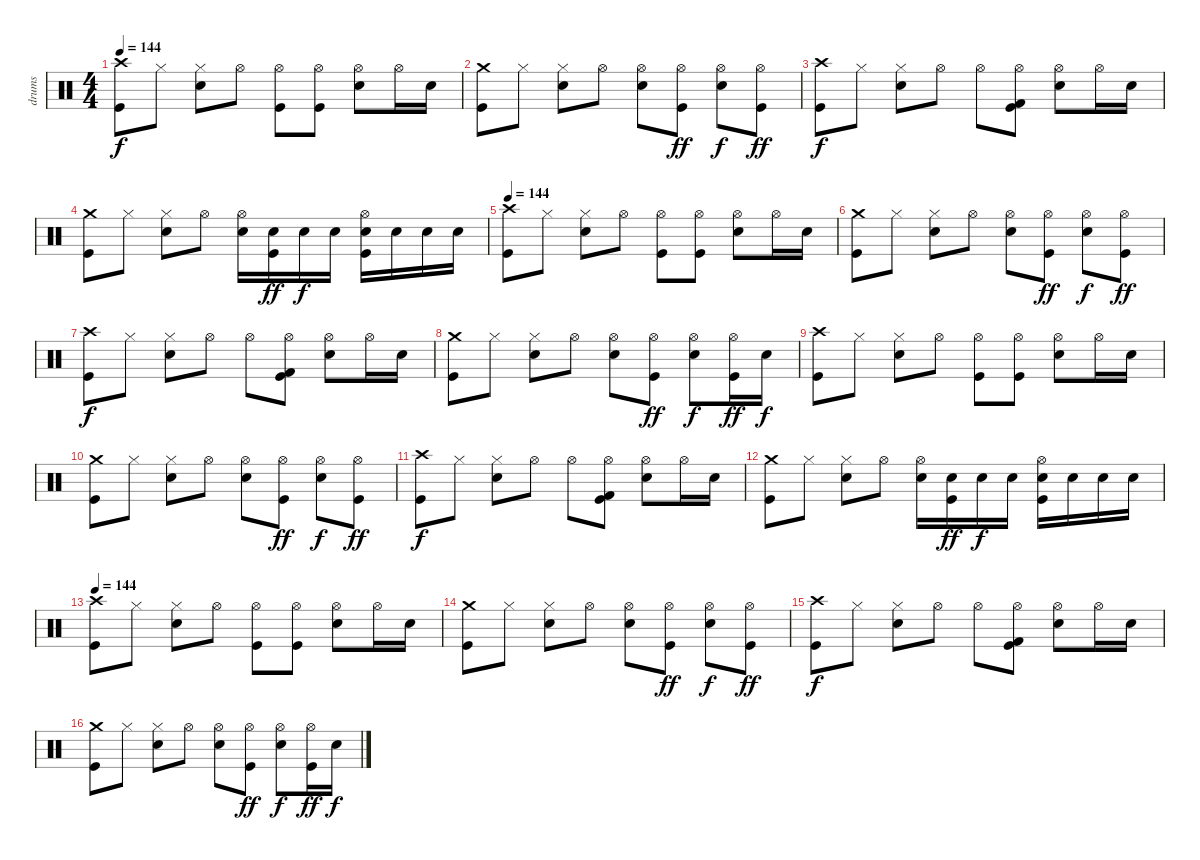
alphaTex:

\track ("drums" "drums") {instrument percussion}
\staff {score}
\articulation defaults
\ts (4 4)
\tempo 144
\clef neutral
\ks c
("Crash high (hit)" "Kick (hit)").8{dy f} "Hi-Hat (closed)".8 ("Hi-Hat (closed)" "Electric Snare (hit)").8 "Hi-Hat (open)".8 ("Hi-Hat (open)" "Kick (hit)").8 ("Hi-Hat (open)" "Kick (hit)").8 ("Hi-Hat (open)" "Electric Snare (hit)").8 "Hi-Hat (open)".16 "Electric Snare (hit)".16 |
("Crash medium (hit)" "Kick (hit)").8 "Hi-Hat (closed)".8 ("Hi-Hat (closed)" "Electric Snare (hit)").8 "Hi-Hat (open)".8 ("Hi-Hat (open)" "Electric Snare (hit)").8 ("Hi-Hat (open)" "Kick (hit)").8{dy ff} ("Hi-Hat (open)" "Electric Snare (hit)").8{dy f} ("Hi-Hat (open)" "Kick (hit)").8{dy ff} |
("Crash high (hit)" "Kick (hit)").8{dy f} "Hi-Hat (closed)".8 ("Hi-Hat (closed)" "Electric Snare (hit)").8 "Hi-Hat (open)".8 "Hi-Hat (open)".8 ("Hi-Hat (open)" "Kick (hit) 2" "Kick (hit)").8 ("Hi-Hat (open)" "Electric Snare (hit)").8 "Hi-Hat (open)".16 "Electric Snare (hit)".16 |
("Crash medium (hit)" "Kick (hit)").8 "Hi-Hat (closed)".8 ("Hi-Hat (closed)" "Electric Snare (hit)").8 "Hi-Hat (open)".8 ("Hi-Hat (open)" "Electric Snare (hit)").16 ("Electric Snare (hit)" "Kick (hit)").16{dy ff} "Electric Snare (hit)".16{dy f} "Electric Snare (hit)".16 ("Hi-Hat (open)" "Electric Snare (hit)" "Kick (hit)").16 "Electric Snare (hit)".16 "Electric Snare (hit)".16 "Electric Snare (hit)".16 |
\tempo 144
("Crash high (hit)" "Kick (hit)").8 "Hi-Hat (closed)".8 ("Hi-Hat (closed)" "Electric Snare (hit)").8 "Hi-Hat (open)".8 ("Hi-Hat (open)" "Kick (hit)").8 ("Hi-Hat (open)" "Kick (hit)").8 ("Hi-Hat (open)" "Electric Snare (hit)").8 "Hi-Hat (open)".16 "Electric Snare (hit)".16 |
("Crash medium (hit)" "Kick (hit)").8 "Hi-Hat (closed)".8 ("Hi-Hat (closed)" "Electric Snare (hit)").8 "Hi-Hat (open)".8 ("Hi-Hat (open)" "Electric Snare (hit)").8 ("Hi-Hat (open)" "Kick (hit)").8{dy ff} ("Hi-Hat (open)" "Electric Snare (hit)").8{dy f} ("Hi-Hat (open)" "Kick (hit)").8{dy ff} |
("Crash high (hit)" "Kick (hit)").8{dy f} "Hi-Hat (closed)".8 ("Hi-Hat (closed)" "Electric Snare (hit)").8 "Hi-Hat (open)".8 "Hi-Hat (open)".8 ("Hi-Hat (open)" "Kick (hit) 2" "Kick (hit)").8 ("Hi-Hat (open)" "Electric Snare (hit)").8 "Hi-Hat (open)".16 "Electric Snare (hit)".16 |
("Crash medium (hit)" "Kick (hit)").8 "Hi-Hat (closed)".8 ("Hi-Hat (closed)" "Electric Snare (hit)").8 "Hi-Hat (open)".8 ("Hi-Hat (open)" "Electric Snare (hit)").8 ("Hi-Hat (open)" "Kick (hit)").8{dy ff} ("Hi-Hat (open)" "Electric Snare (hit)").8{dy f} ("Hi-Hat (open)" "Kick (hit)").16{dy ff} "Electric Snare (hit)".16{dy f} |
("Crash high (hit)" "Kick (hit)").8 "Hi-Hat (closed)".8 ("Hi-Hat (closed)" "Electric Snare (hit)").8 "Hi-Hat (open)".8 ("Hi-Hat (open)" "Kick (hit)").8 ("Hi-Hat (open)" "Kick (hit)").8 ("Hi-Hat (open)" "Electric Snare (hit)").8 "Hi-Hat (open)".16 "Electric Snare (hit)".16 |
("Crash medium (hit)" "Kick (hit)").8 "Hi-Hat (closed)".8 ("Hi-Hat (closed)" "Electric Snare (hit)").8 "Hi-Hat (open)".8 ("Hi-Hat (open)" "Electric Snare (hit)").8 ("Hi-Hat (open)" "Kick (hit)").8{dy ff} ("Hi-Hat (open)" "Electric Snare (hit)").8{dy f} ("Hi-Hat (open)" "Kick (hit)").8{dy ff} |
("Crash high (hit)" "Kick (hit)").8{dy f} "Hi-Hat (closed)".8 ("Hi-Hat (closed)" "Electric Snare (hit)").8 "Hi-Hat (open)".8 "Hi-Hat (open)".8 ("Hi-Hat (open)" "Kick (hit) 2" "Kick (hit)").8 ("Hi-Hat (open)" "Electric Snare (hit)").8 "Hi-Hat (open)".16 "Electric Snare (hit)".16 |
("Crash medium (hit)" "Kick (hit)").8 "Hi-Hat (closed)".8 ("Hi-Hat (closed)" "Electric Snare (hit)").8 "Hi-Hat (open)".8 ("Hi-Hat (open)" "Electric Snare (hit)").16 ("Electric Snare (hit)" "Kick (hit)").16{dy ff} "Electric Snare (hit)".16{dy f} "Electric Snare (hit)".16 ("Hi-Hat (open)" "Electric Snare (hit)" "Kick (hit)").16 "Electric Snare (hit)".16 "Electric Snare (hit)".16 "Electric Snare (hit)".16 |
\tempo 144
("Crash high (hit)" "Kick (hit)").8 "Hi-Hat (closed)".8 ("Hi-Hat (closed)" "Electric Snare (hit)").8 "Hi-Hat (open)".8 ("Hi-Hat (open)" "Kick (hit)").8 ("Hi-Hat (open)" "Kick (hit)").8 ("Hi-Hat (open)" "Electric Snare (hit)").8 "Hi-Hat (open)".16 "Electric Snare (hit)".16 |
("Crash medium (hit)" "Kick (hit)").8 "Hi-Hat (closed)".8 ("Hi-Hat (closed)" "Electric Snare (hit)").8 "Hi-Hat (open)".8 ("Hi-Hat (open)" "Electric Snare (hit)").8 ("Hi-Hat (open)" "Kick (hit)").8{dy ff} ("Hi-Hat (open)" "Electric Snare (hit)").8{dy f} ("Hi-Hat (open)" "Kick (hit)").8{dy ff} |
("Crash high (hit)" "Kick (hit)").8{dy f} "Hi-Hat (closed)".8 ("Hi-Hat (closed)" "Electric Snare (hit)").8 "Hi-Hat (open)".8 "Hi-Hat (open)".8 ("Hi-Hat (open)" "Kick (hit) 2" "Kick (hit)").8 ("Hi-Hat (open)" "Electric Snare (hit)").8 "Hi-Hat (open)".16 "Electric Snare (hit)".16 |
("Crash medium (hit)" "Kick (hit)").8 "Hi-Hat (closed)".8 ("Hi-Hat (closed)" "Electric Snare (hit)").8 "Hi-Hat (open)".8 ("Hi-Hat (open)" "Electric Snare (hit)").8 ("Hi-Hat (open)" "Kick (hit)").8{dy ff} ("Hi-Hat (open)" "Electric Snare (hit)").8{dy f} ("Hi-Hat (open)" "Kick (hit)").16{dy ff} "Electric Snare (hit)".16{dy f}
